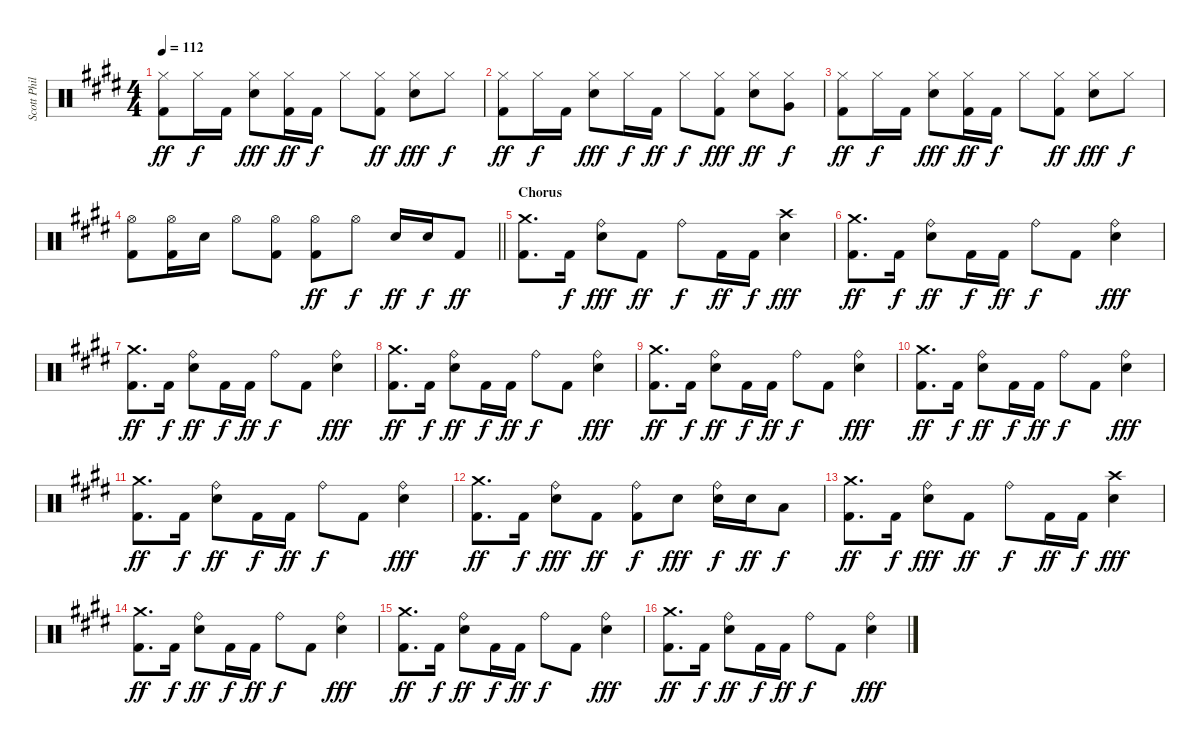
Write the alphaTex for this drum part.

\track ("Scott Phillips" "Scott Phil") {instrument percussion}
\staff {score}
\articulation defaults
\ts (4 4)
\tempo 112
\clef neutral
\ks c#minor
("Hi-Hat (closed)" "Kick (hit) 2").8{dy ff} "Hi-Hat (closed)".16{dy f} "Kick (hit) 2".16 ("Hi-Hat (closed)" "Electric Snare (hit)").8{dy fff} ("Hi-Hat (closed)" "Kick (hit) 2").16{dy ff} "Kick (hit) 2".16{dy f} "Hi-Hat (closed)".8 ("Hi-Hat (closed)" "Kick (hit) 2").8{dy ff} ("Hi-Hat (closed)" "Electric Snare (hit)").8{dy fff} "Hi-Hat (closed)".8{dy f} |
("Hi-Hat (closed)" "Kick (hit) 2").8{dy ff} "Hi-Hat (closed)".16{dy f} "Kick (hit) 2".16 ("Hi-Hat (closed)" "Electric Snare (hit)").8{dy fff} "Hi-Hat (closed)".16{dy f} "Kick (hit) 2".16{dy ff} "Hi-Hat (closed)".8{dy f} ("Hi-Hat (closed)" "Kick (hit) 2").8{dy fff} ("Hi-Hat (closed)" "Electric Snare (hit)").8{dy ff} ("Hi-Hat (closed)" "Very Low Tom (hit)").8{dy f} |
("Hi-Hat (closed)" "Kick (hit) 2").8{dy ff} "Hi-Hat (closed)".16{dy f} "Kick (hit) 2".16 ("Hi-Hat (closed)" "Electric Snare (hit)").8{dy fff} ("Hi-Hat (closed)" "Kick (hit) 2").16{dy ff} "Kick (hit) 2".16{dy f} "Hi-Hat (closed)".8 ("Hi-Hat (closed)" "Kick (hit) 2").8{dy ff} ("Hi-Hat (closed)" "Electric Snare (hit)").8{dy fff} "Hi-Hat (closed)".8{dy f} |
\barLineRight lightlight
("Hi-Hat (open)" "Kick (hit) 2").8 ("Hi-Hat (open)" "Kick (hit) 2").16 "Electric Snare (hit)".16 "Hi-Hat (open)".8 ("Hi-Hat (open)" "Kick (hit) 2").8 ("Hi-Hat (open)" "Kick (hit) 2").8{dy ff} "Hi-Hat (open)".8{dy f} "Electric Snare (hit)".16{dy ff} "Electric Snare (hit)".16{dy f} "Kick (hit) 2".8{dy ff} |
\section ("" "Chorus")
("Crash medium (hit)" "Kick (hit) 2").8{d} "Kick (hit) 2".16{dy f} ("Ride (bell)" "Electric Snare (hit)").8{dy fff} "Kick (hit) 2".8{dy ff} "Ride (bell)".8{dy f} "Kick (hit) 2".16{dy ff} "Kick (hit) 2".16{dy f} ("Crash high (hit)" "Electric Snare (hit)").4{dy fff} |
("Crash medium (hit)" "Kick (hit) 2").8{d dy ff} "Kick (hit) 2".16{dy f} ("Ride (bell)" "Electric Snare (hit)").8{dy ff} "Kick (hit) 2".16{dy f} "Kick (hit) 2".16{dy ff} "Ride (bell)".8{dy f} "Kick (hit) 2".8 ("Ride (bell)" "Electric Snare (hit)").4{dy fff} |
("Crash medium (hit)" "Kick (hit) 2").8{d dy ff} "Kick (hit) 2".16{dy f} ("Ride (bell)" "Electric Snare (hit)").8{dy ff} "Kick (hit) 2".16{dy f} "Kick (hit) 2".16{dy ff} "Ride (bell)".8{dy f} "Kick (hit) 2".8 ("Ride (bell)" "Electric Snare (hit)").4{dy fff} |
("Crash medium (hit)" "Kick (hit) 2").8{d dy ff} "Kick (hit) 2".16{dy f} ("Ride (bell)" "Electric Snare (hit)").8{dy ff} "Kick (hit) 2".16{dy f} "Kick (hit) 2".16{dy ff} "Ride (bell)".8{dy f} "Kick (hit) 2".8 ("Ride (bell)" "Electric Snare (hit)").4{dy fff} |
("Crash medium (hit)" "Kick (hit) 2").8{d dy ff} "Kick (hit) 2".16{dy f} ("Ride (bell)" "Electric Snare (hit)").8{dy ff} "Kick (hit) 2".16{dy f} "Kick (hit) 2".16{dy ff} "Ride (bell)".8{dy f} "Kick (hit) 2".8 ("Ride (bell)" "Electric Snare (hit)").4{dy fff} |
("Crash medium (hit)" "Kick (hit) 2").8{d dy ff} "Kick (hit) 2".16{dy f} ("Ride (bell)" "Electric Snare (hit)").8{dy ff} "Kick (hit) 2".16{dy f} "Kick (hit) 2".16{dy ff} "Ride (bell)".8{dy f} "Kick (hit) 2".8 ("Ride (bell)" "Electric Snare (hit)").4{dy fff} |
("Crash medium (hit)" "Kick (hit) 2").8{d dy ff} "Kick (hit) 2".16{dy f} ("Ride (bell)" "Electric Snare (hit)").8{dy ff} "Kick (hit) 2".16{dy f} "Kick (hit) 2".16{dy ff} "Ride (bell)".8{dy f} "Kick (hit) 2".8 ("Ride (bell)" "Electric Snare (hit)").4{dy fff} |
("Crash medium (hit)" "Kick (hit) 2").8{d dy ff} "Kick (hit) 2".16{dy f} ("Ride (bell)" "Electric Snare (hit)").8{dy fff} "Kick (hit) 2".8{dy ff} ("Ride (bell)" "Kick (hit) 2").8{dy f} "Electric Snare (hit)".8{dy fff} ("Ride (bell)" "Electric Snare (hit)").16{dy f} "Electric Snare (hit)".16{dy ff} "Low Floor Tom (hit)".8{dy f} |
("Crash medium (hit)" "Kick (hit) 2").8{d dy ff} "Kick (hit) 2".16{dy f} ("Ride (bell)" "Electric Snare (hit)").8{dy fff} "Kick (hit) 2".8{dy ff} "Ride (bell)".8{dy f} "Kick (hit) 2".16{dy ff} "Kick (hit) 2".16{dy f} ("Crash high (hit)" "Electric Snare (hit)").4{dy fff} |
("Crash medium (hit)" "Kick (hit) 2").8{d dy ff} "Kick (hit) 2".16{dy f} ("Ride (bell)" "Electric Snare (hit)").8{dy ff} "Kick (hit) 2".16{dy f} "Kick (hit) 2".16{dy ff} "Ride (bell)".8{dy f} "Kick (hit) 2".8 ("Ride (bell)" "Electric Snare (hit)").4{dy fff} |
("Crash medium (hit)" "Kick (hit) 2").8{d dy ff} "Kick (hit) 2".16{dy f} ("Ride (bell)" "Electric Snare (hit)").8{dy ff} "Kick (hit) 2".16{dy f} "Kick (hit) 2".16{dy ff} "Ride (bell)".8{dy f} "Kick (hit) 2".8 ("Ride (bell)" "Electric Snare (hit)").4{dy fff} |
("Crash medium (hit)" "Kick (hit) 2").8{d dy ff} "Kick (hit) 2".16{dy f} ("Ride (bell)" "Electric Snare (hit)").8{dy ff} "Kick (hit) 2".16{dy f} "Kick (hit) 2".16{dy ff} "Ride (bell)".8{dy f} "Kick (hit) 2".8 ("Ride (bell)" "Electric Snare (hit)").4{dy fff}
